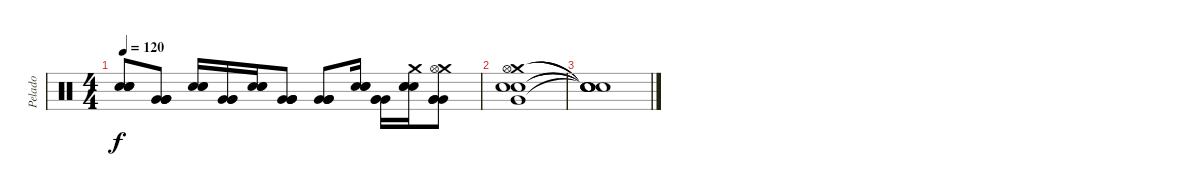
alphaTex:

\track ("Pelado" "Pelado") {instrument percussion}
\staff {score}
\articulation defaults
\ts (4 4)
\tempo 120
\clef neutral
\ks c
("Electric Snare (hit)" "Electric Snare (hit)" "Electric Snare (hit)" "Electric Snare (hit)").8{dy f} ("Very Low Tom (hit)" "Very Low Tom (hit)" "Very Low Tom (hit)" "Very Low Tom (hit)").8 ("Electric Snare (hit)" "Electric Snare (hit)" "Electric Snare (hit)").16 ("Very Low Tom (hit)" "Very Low Tom (hit)" "Very Low Tom (hit)").16 ("Electric Snare (hit)" "Electric Snare (hit)" "Electric Snare (hit)").16 ("Very Low Tom (hit)" "Very Low Tom (hit)" "Very Low Tom (hit)" "Very Low Tom (hit)").8 ("Very Low Tom (hit)" "Very Low Tom (hit)" "Very Low Tom (hit)" "Very Low Tom (hit)").8 ("Electric Snare (hit)" "Electric Snare (hit)" "Electric Snare (hit)").16 ("Very Low Tom (hit)" "Very Low Tom (hit)" "Very Low Tom (hit)").16 ("Crash medium (hit)" "Electric Snare (hit)" "Electric Snare (hit)" "Electric Snare (hit)").16 ("Crash medium (hit)" "Hi-Hat (open)" "Very Low Tom (hit)" "Very Low Tom (hit)" "Very Low Tom (hit)").8 |
("Crash medium (hit)" "Hi-Hat (open)" "Very Low Tom (hit)" "Snare (hit) 2" "Electric Snare (hit)").1 |
("Snare (hit)"{t} "Snare (hit)"{t} "Snare (hit)"{t} "Snare (hit)"{t} "Snare (hit)"{t}).1
